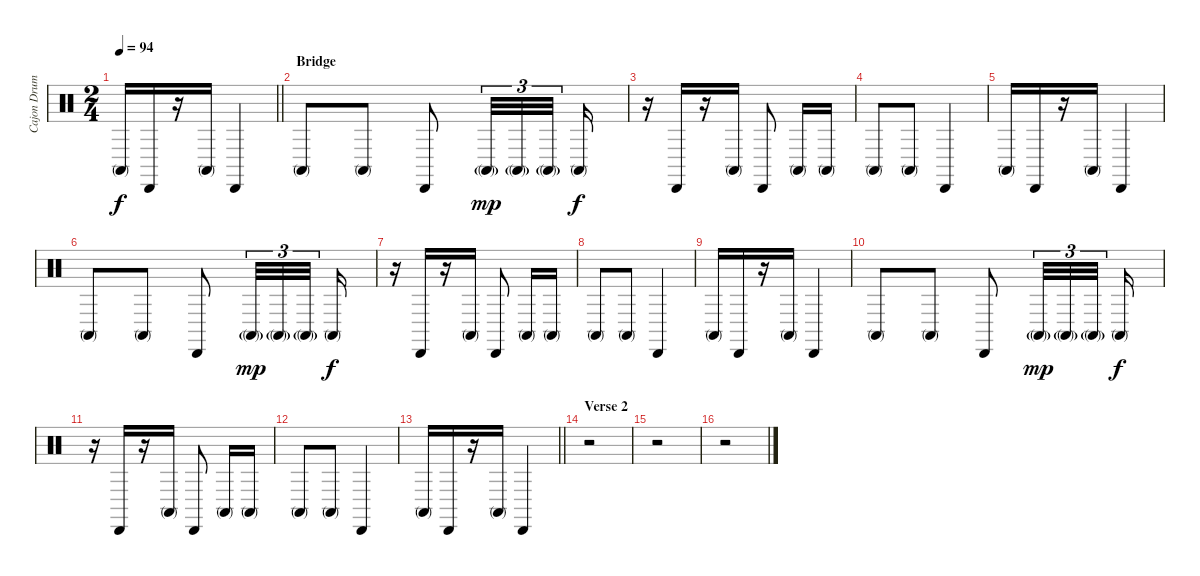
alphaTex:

\track ("Cajon Drum" "Cajon Drum") {instrument percussion}
\staff {score}
\articulation defaults
\ts (2 4)
\tempo 94
\clef neutral
\barLineRight lightlight
\ks c "Conga high (mute)".16{dy f} "Cabasa (hit)".16
r.16 "Conga high (mute)".16 "Cabasa (hit)".4 |
\section ("" "Bridge")
"Conga high (mute)".8 "Conga high (mute)".8 "Cabasa (hit)".8{beam split} "Conga high (mute)"{g}.32{tu (3 2) dy mp} "Conga high (mute)"{g}.32{tu (3 2)} "Conga high (mute)"{g}.32{tu (3 2) beam split} "Conga high (mute)".16{dy f} |
r.16 "Cabasa (hit)".16 r.16 "Conga high (mute)".16 "Cabasa (hit)".8{beam split} "Conga high (mute)".16 "Conga high (mute)".16 |
"Conga high (mute)".8 "Conga high (mute)".8 "Cabasa (hit)".4 |
"Conga high (mute)".16 "Cabasa (hit)".16 r.16 "Conga high (mute)".16 "Cabasa (hit)".4 |
"Conga high (mute)".8 "Conga high (mute)".8 "Cabasa (hit)".8{beam split} "Conga high (mute)"{g}.32{tu (3 2) dy mp} "Conga high (mute)"{g}.32{tu (3 2)} "Conga high (mute)"{g}.32{tu (3 2) beam split} "Conga high (mute)".16{dy f} |
r.16 "Cabasa (hit)".16 r.16 "Conga high (mute)".16 "Cabasa (hit)".8{beam split} "Conga high (mute)".16 "Conga high (mute)".16 |
"Conga high (mute)".8 "Conga high (mute)".8 "Cabasa (hit)".4 |
"Conga high (mute)".16 "Cabasa (hit)".16 r.16 "Conga high (mute)".16 "Cabasa (hit)".4 |
"Conga high (mute)".8 "Conga high (mute)".8 "Cabasa (hit)".8{beam split} "Conga high (mute)"{g}.32{tu (3 2) dy mp} "Conga high (mute)"{g}.32{tu (3 2)} "Conga high (mute)"{g}.32{tu (3 2) beam split} "Conga high (mute)".16{dy f} |
r.16 "Cabasa (hit)".16 r.16 "Conga high (mute)".16 "Cabasa (hit)".8{beam split} "Conga high (mute)".16 "Conga high (mute)".16 |
"Conga high (mute)".8 "Conga high (mute)".8 "Cabasa (hit)".4 |
\barLineRight lightlight "Conga high (mute)".16 "Cabasa (hit)".16
r.16 "Conga high (mute)".16 "Cabasa (hit)".4 |
\section ("" "Verse 2")
r.2 |
r.2 |
r.2
